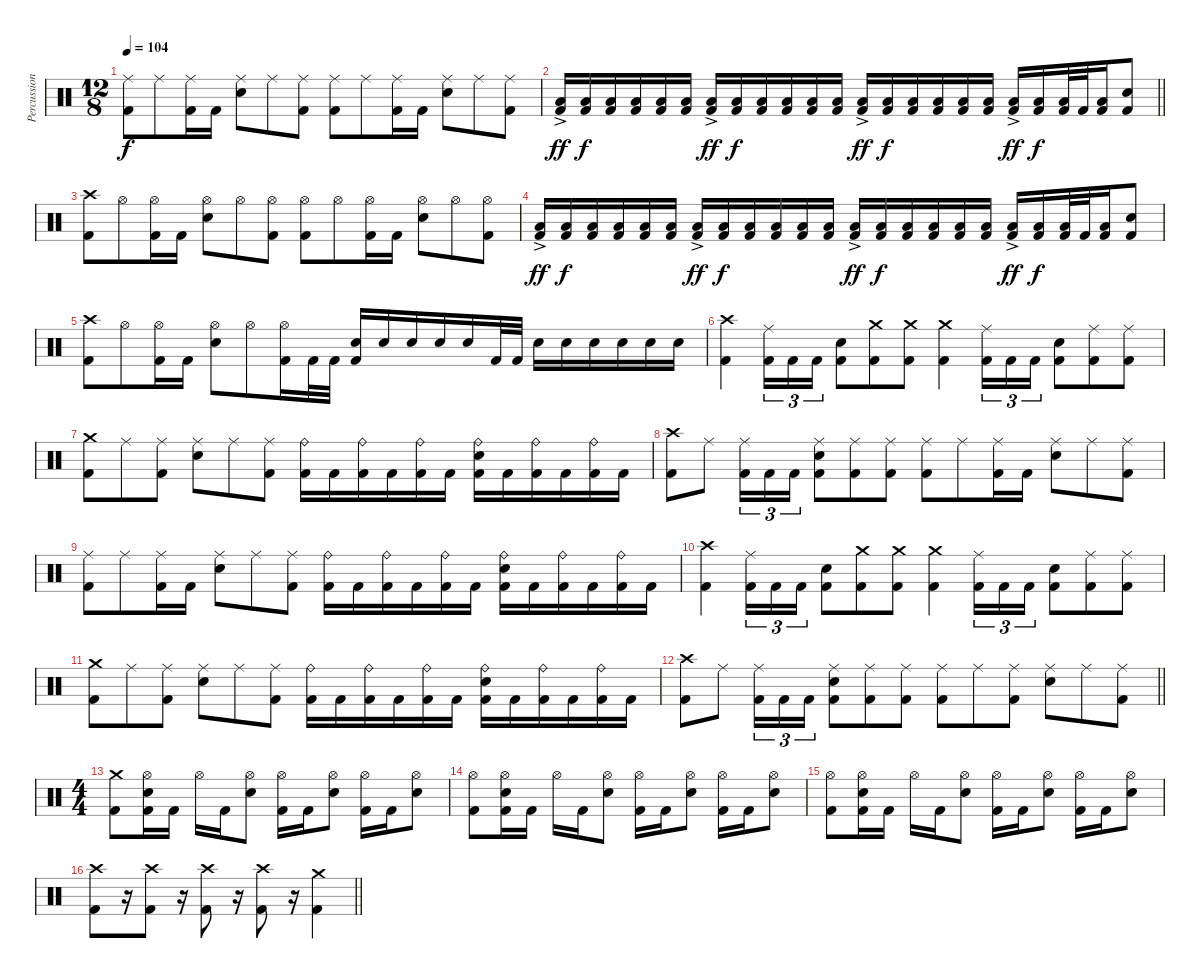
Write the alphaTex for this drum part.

\track ("Percussion" "Percussion") {instrument percussion}
\staff {score}
\articulation defaults
\ts (12 8)
\tempo 104
\clef neutral
\ks c
("Ride (middle)" "Kick (hit) 2").8{dy f} "Ride (middle)".8 ("Ride (middle)" "Kick (hit) 2").16 "Kick (hit) 2".16 ("Ride (middle)" "Electric Snare (hit)").8 "Ride (middle)".8 ("Ride (middle)" "Kick (hit) 2").8 ("Ride (middle)" "Kick (hit) 2").8 "Ride (middle)".8 ("Ride (middle)" "Kick (hit) 2").16 "Kick (hit) 2".16 ("Ride (middle)" "Electric Snare (hit)").8 "Ride (middle)".8 ("Ride (middle)" "Kick (hit) 2").8 |
\barLineRight lightlight
("Low Floor Tom (hit)"{ac} "Kick (hit) 2").16{dy ff} ("Low Floor Tom (hit)" "Kick (hit) 2").16{dy f} ("Low Floor Tom (hit)" "Kick (hit) 2").16 ("Low Floor Tom (hit)" "Kick (hit) 2").16 ("Low Floor Tom (hit)" "Kick (hit) 2").16 ("Low Floor Tom (hit)" "Kick (hit) 2").16 ("Low Floor Tom (hit)"{ac} "Kick (hit) 2").16{dy ff} ("Low Floor Tom (hit)" "Kick (hit) 2").16{dy f} ("Low Floor Tom (hit)" "Kick (hit) 2").16 ("Low Floor Tom (hit)" "Kick (hit) 2").16 ("Low Floor Tom (hit)" "Kick (hit) 2").16 ("Low Floor Tom (hit)" "Kick (hit) 2").16 ("Low Floor Tom (hit)"{ac} "Kick (hit) 2").16{dy ff} ("Low Floor Tom (hit)" "Kick (hit) 2").16{dy f} ("Low Floor Tom (hit)" "Kick (hit) 2").16 ("Low Floor Tom (hit)" "Kick (hit) 2").16 ("Low Floor Tom (hit)" "Kick (hit) 2").16 ("Low Floor Tom (hit)" "Kick (hit) 2").16 ("Low Floor Tom (hit)"{ac} "Kick (hit) 2").16{dy ff} ("Low Floor Tom (hit)" "Kick (hit) 2").16{dy f} ("Low Floor Tom (hit)" "Kick (hit) 2").32 "Kick (hit) 2".32 ("Low Floor Tom (hit)" "Kick (hit) 2").16 ("Electric Snare (hit)" "Kick (hit) 2").8 |
("Crash high (hit)" "Kick (hit) 2").8 "Hi-Hat (open)".8 ("Hi-Hat (open)" "Kick (hit) 2").16 "Kick (hit) 2".16 ("Hi-Hat (open)" "Electric Snare (hit)").8 "Hi-Hat (open)".8 ("Hi-Hat (open)" "Kick (hit) 2").8 ("Hi-Hat (open)" "Kick (hit) 2").8 "Hi-Hat (open)".8 ("Hi-Hat (open)" "Kick (hit) 2").16 "Kick (hit) 2".16 ("Hi-Hat (open)" "Electric Snare (hit)").8 "Hi-Hat (open)".8 ("Hi-Hat (open)" "Kick (hit) 2").8 |
("Low Floor Tom (hit)"{ac} "Kick (hit) 2").16{dy ff} ("Low Floor Tom (hit)" "Kick (hit) 2").16{dy f} ("Low Floor Tom (hit)" "Kick (hit) 2").16 ("Low Floor Tom (hit)" "Kick (hit) 2").16 ("Low Floor Tom (hit)" "Kick (hit) 2").16 ("Low Floor Tom (hit)" "Kick (hit) 2").16 ("Low Floor Tom (hit)"{ac} "Kick (hit) 2").16{dy ff} ("Low Floor Tom (hit)" "Kick (hit) 2").16{dy f} ("Low Floor Tom (hit)" "Kick (hit) 2").16 ("Low Floor Tom (hit)" "Kick (hit) 2").16 ("Low Floor Tom (hit)" "Kick (hit) 2").16 ("Low Floor Tom (hit)" "Kick (hit) 2").16 ("Low Floor Tom (hit)"{ac} "Kick (hit) 2").16{dy ff} ("Low Floor Tom (hit)" "Kick (hit) 2").16{dy f} ("Low Floor Tom (hit)" "Kick (hit) 2").16 ("Low Floor Tom (hit)" "Kick (hit) 2").16 ("Low Floor Tom (hit)" "Kick (hit) 2").16 ("Low Floor Tom (hit)" "Kick (hit) 2").16 ("Low Floor Tom (hit)"{ac} "Kick (hit) 2").16{dy ff} ("Low Floor Tom (hit)" "Kick (hit) 2").16{dy f} ("Low Floor Tom (hit)" "Kick (hit) 2").32 "Kick (hit) 2".32 ("Low Floor Tom (hit)" "Kick (hit) 2").16 ("Electric Snare (hit)" "Kick (hit) 2").8 |
("Crash high (hit)" "Kick (hit) 2").8 "Hi-Hat (open)".8 ("Hi-Hat (open)" "Kick (hit) 2").16 "Kick (hit) 2".16 ("Hi-Hat (open)" "Electric Snare (hit)").8 "Hi-Hat (open)".8 ("Hi-Hat (open)" "Kick (hit) 2").16 "Kick (hit) 2".32 "Kick (hit) 2".32 ("Electric Snare (hit)" "Kick (hit) 2").16 "Electric Snare (hit)".16 "Electric Snare (hit)".16 "Electric Snare (hit)".16 "Electric Snare (hit)".16 "Kick (hit) 2".32 "Kick (hit) 2".32 "Electric Snare (hit)".16 "Electric Snare (hit)".16 "Electric Snare (hit)".16 "Electric Snare (hit)".16 "Electric Snare (hit)".16 "Electric Snare (hit)".16 |
("Crash high (hit)" "Kick (hit) 2").4 ("Ride (middle)" "Kick (hit) 2").16{tu (3 2)} "Kick (hit) 2".16{tu (3 2)} "Kick (hit) 2".16{tu (3 2)} ("Electric Snare (hit)" "Kick (hit) 2").8 ("Crash medium (hit)" "Kick (hit) 2").8 ("Crash medium (hit)" "Kick (hit) 2").8 ("Crash medium (hit)" "Kick (hit) 2").4 ("Ride (middle)" "Kick (hit) 2").16{tu (3 2)} "Kick (hit) 2".16{tu (3 2)} "Kick (hit) 2".16{tu (3 2)} ("Electric Snare (hit)" "Kick (hit) 2").8 ("Ride (middle)" "Kick (hit) 2").8 ("Ride (middle)" "Kick (hit) 2").8 |
("Crash medium (hit)" "Kick (hit) 2").8 "Ride (middle)".8 ("Ride (middle)" "Kick (hit) 2").8 ("Ride (middle)" "Electric Snare (hit)").8 "Ride (middle)".8 ("Ride (middle)" "Kick (hit) 2").8 ("Ride (bell)" "Kick (hit) 2").16 "Kick (hit) 2".16 ("Ride (bell)" "Kick (hit) 2").16 "Kick (hit) 2".16 ("Ride (bell)" "Kick (hit) 2").16 "Kick (hit) 2".16 ("Ride (bell)" "Electric Snare (hit)" "Kick (hit) 2").16 "Kick (hit) 2".16 ("Ride (bell)" "Kick (hit) 2").16 "Kick (hit) 2".16 ("Ride (bell)" "Kick (hit) 2").16 "Kick (hit) 2".16 |
("Crash high (hit)" "Kick (hit) 2").8 "Ride (middle)".8 ("Ride (middle)" "Kick (hit) 2").16{tu (3 2)} "Kick (hit) 2".16{tu (3 2)} "Kick (hit) 2".16{tu (3 2)} ("Ride (middle)" "Electric Snare (hit)" "Kick (hit) 2").8 ("Ride (middle)" "Kick (hit) 2").8 ("Ride (middle)" "Kick (hit) 2").8 ("Ride (middle)" "Kick (hit) 2").8 "Ride (middle)".8 ("Ride (middle)" "Kick (hit) 2").16 "Kick (hit) 2".16 ("Ride (middle)" "Electric Snare (hit)").8 "Ride (middle)".8 ("Ride (middle)" "Kick (hit) 2").8 |
("Ride (middle)" "Kick (hit) 2").8 "Ride (middle)".8 ("Ride (middle)" "Kick (hit) 2").16 "Kick (hit) 2".16 ("Ride (middle)" "Electric Snare (hit)").8 "Ride (middle)".8 ("Ride (middle)" "Kick (hit) 2").8 ("Ride (bell)" "Kick (hit) 2").16 "Kick (hit) 2".16 ("Ride (bell)" "Kick (hit) 2").16 "Kick (hit) 2".16 ("Ride (bell)" "Kick (hit) 2").16 "Kick (hit) 2".16 ("Ride (bell)" "Electric Snare (hit)" "Kick (hit) 2").16 "Kick (hit) 2".16 ("Ride (bell)" "Kick (hit) 2").16 "Kick (hit) 2".16 ("Ride (bell)" "Kick (hit) 2").16 "Kick (hit) 2".16 |
("Crash high (hit)" "Kick (hit) 2").4 ("Ride (middle)" "Kick (hit) 2").16{tu (3 2)} "Kick (hit) 2".16{tu (3 2)} "Kick (hit) 2".16{tu (3 2)} ("Electric Snare (hit)" "Kick (hit) 2").8 ("Crash medium (hit)" "Kick (hit) 2").8 ("Crash medium (hit)" "Kick (hit) 2").8 ("Crash medium (hit)" "Kick (hit) 2").4 ("Ride (middle)" "Kick (hit) 2").16{tu (3 2)} "Kick (hit) 2".16{tu (3 2)} "Kick (hit) 2".16{tu (3 2)} ("Electric Snare (hit)" "Kick (hit) 2").8 ("Ride (middle)" "Kick (hit) 2").8 ("Ride (middle)" "Kick (hit) 2").8 |
("Crash medium (hit)" "Kick (hit) 2").8 "Ride (middle)".8 ("Ride (middle)" "Kick (hit) 2").8 ("Ride (middle)" "Electric Snare (hit)").8 "Ride (middle)".8 ("Ride (middle)" "Kick (hit) 2").8 ("Ride (bell)" "Kick (hit) 2").16 "Kick (hit) 2".16 ("Ride (bell)" "Kick (hit) 2").16 "Kick (hit) 2".16 ("Ride (bell)" "Kick (hit) 2").16 "Kick (hit) 2".16 ("Ride (bell)" "Electric Snare (hit)" "Kick (hit) 2").16 "Kick (hit) 2".16 ("Ride (bell)" "Kick (hit) 2").16 "Kick (hit) 2".16 ("Ride (bell)" "Kick (hit) 2").16 "Kick (hit) 2".16 |
\barLineRight lightlight
("Crash high (hit)" "Kick (hit) 2").8 "Ride (middle)".8 ("Ride (middle)" "Kick (hit) 2").16{tu (3 2)} "Kick (hit) 2".16{tu (3 2)} "Kick (hit) 2".16{tu (3 2)} ("Ride (middle)" "Electric Snare (hit)" "Kick (hit) 2").8 ("Ride (middle)" "Kick (hit) 2").8 ("Ride (middle)" "Kick (hit) 2").8 ("Ride (middle)" "Kick (hit) 2").8 "Ride (middle)".8 ("Ride (middle)" "Kick (hit) 2").8 ("Ride (middle)" "Electric Snare (hit)").8 "Ride (middle)".8 ("Ride (middle)" "Kick (hit) 2").8 |
\ts (4 4)
("Crash medium (hit)" "Kick (hit) 2").8 ("Hi-Hat (open)" "Electric Snare (hit)" "Kick (hit) 2").16 "Kick (hit) 2".16 "Hi-Hat (open)".16 "Kick (hit) 2".16 ("Hi-Hat (open)" "Electric Snare (hit)").8 ("Hi-Hat (open)" "Kick (hit) 2").16 "Kick (hit) 2".16 ("Hi-Hat (open)" "Electric Snare (hit)").8 ("Hi-Hat (open)" "Kick (hit) 2").16 "Kick (hit) 2".16 ("Hi-Hat (open)" "Electric Snare (hit)").8 |
("Hi-Hat (open)" "Kick (hit) 2").8 ("Hi-Hat (open)" "Electric Snare (hit)" "Kick (hit) 2").16 "Kick (hit) 2".16 "Hi-Hat (open)".16 "Kick (hit) 2".16 ("Hi-Hat (open)" "Electric Snare (hit)").8 ("Hi-Hat (open)" "Kick (hit) 2").16 "Kick (hit) 2".16 ("Hi-Hat (open)" "Electric Snare (hit)").8 ("Hi-Hat (open)" "Kick (hit) 2").16 "Kick (hit) 2".16 ("Hi-Hat (open)" "Electric Snare (hit)").8 |
("Hi-Hat (open)" "Kick (hit) 2").8 ("Hi-Hat (open)" "Electric Snare (hit)" "Kick (hit) 2").16 "Kick (hit) 2".16 "Hi-Hat (open)".16 "Kick (hit) 2".16 ("Hi-Hat (open)" "Electric Snare (hit)").8 ("Hi-Hat (open)" "Kick (hit) 2").16 "Kick (hit) 2".16 ("Hi-Hat (open)" "Electric Snare (hit)").8 ("Hi-Hat (open)" "Kick (hit) 2").16 "Kick (hit) 2".16 ("Hi-Hat (open)" "Electric Snare (hit)").8 |
\barLineRight lightlight
("Crash high (hit)" "Kick (hit) 2").8 r.16 ("Crash high (hit)" "Kick (hit) 2").8 r.16 ("Crash high (hit)" "Kick (hit) 2").8 r.16 ("Crash high (hit)" "Kick (hit) 2").8 r.16 ("Crash medium (hit)" "Kick (hit) 2").4
